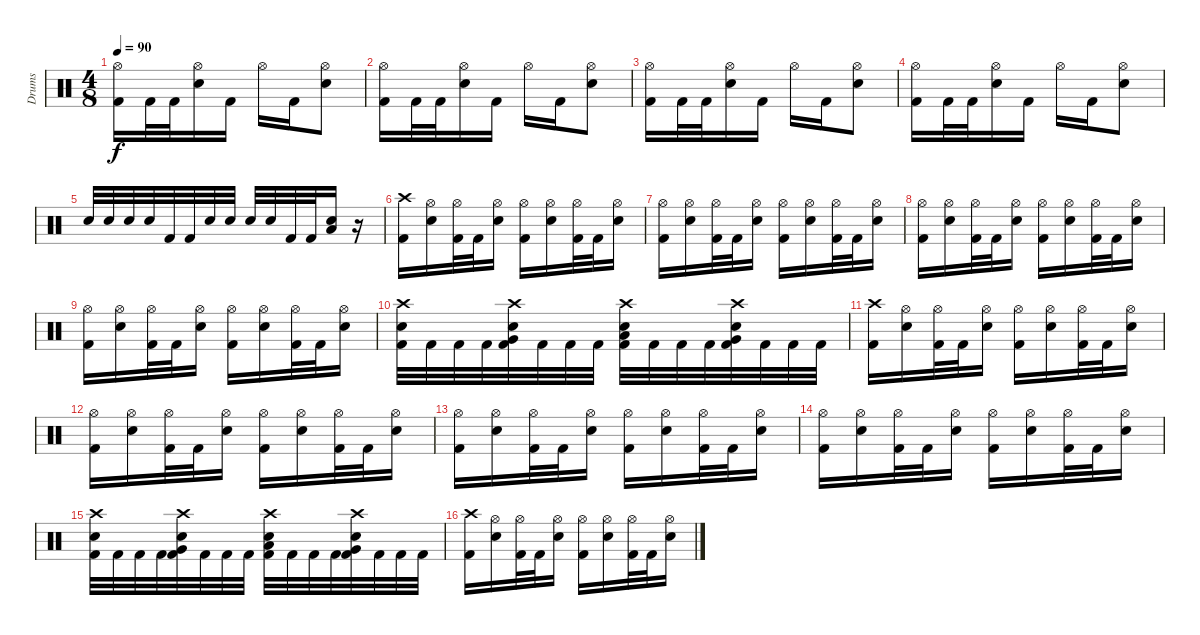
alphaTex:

\track ("Drums" "Drums") {instrument percussion}
\staff {score}
\articulation defaults
\ts (4 8)
\tempo 90
\clef neutral
\ks c
("Kick (hit) 2" "Hi-Hat (open)").16{dy f} "Kick (hit) 2".32 "Kick (hit) 2".32 ("Hi-Hat (open)" "Electric Snare (hit)").16 "Kick (hit) 2".16 "Hi-Hat (open)".16 "Kick (hit) 2".16 ("Electric Snare (hit)" "Hi-Hat (open)").8 |
("Kick (hit) 2" "Hi-Hat (open)").16 "Kick (hit) 2".32 "Kick (hit) 2".32 ("Hi-Hat (open)" "Electric Snare (hit)").16 "Kick (hit) 2".16 "Hi-Hat (open)".16 "Kick (hit) 2".16 ("Electric Snare (hit)" "Hi-Hat (open)").8 |
("Kick (hit) 2" "Hi-Hat (open)").16 "Kick (hit) 2".32 "Kick (hit) 2".32 ("Hi-Hat (open)" "Electric Snare (hit)").16 "Kick (hit) 2".16 "Hi-Hat (open)".16 "Kick (hit) 2".16 ("Electric Snare (hit)" "Hi-Hat (open)").8 |
("Kick (hit) 2" "Hi-Hat (open)").16 "Kick (hit) 2".32 "Kick (hit) 2".32 ("Hi-Hat (open)" "Electric Snare (hit)").16 "Kick (hit) 2".16 "Hi-Hat (open)".16 "Kick (hit) 2".16 ("Electric Snare (hit)" "Hi-Hat (open)").8 |
"Electric Snare (hit)".32 "Electric Snare (hit)".32 "Electric Snare (hit)".32 "Electric Snare (hit)".32 "Kick (hit) 2".32 "Kick (hit) 2".32 "Electric Snare (hit)".32 "Electric Snare (hit)".32 "Electric Snare (hit)".32 "Electric Snare (hit)".32 "Kick (hit) 2".32 "Kick (hit) 2".32 ("Electric Snare (hit)" "Low Floor Tom (hit)").16 r.16 |
("Kick (hit) 2" "Crash high (hit)").16 ("Electric Snare (hit)" "Hi-Hat (open)").16 ("Kick (hit) 2" "Hi-Hat (open)").32 "Kick (hit) 2".32 ("Electric Snare (hit)" "Hi-Hat (open)").16 ("Kick (hit) 2" "Hi-Hat (open)").16 ("Electric Snare (hit)" "Hi-Hat (open)").16 ("Kick (hit) 2" "Hi-Hat (open)").32 "Kick (hit) 2".32 ("Electric Snare (hit)" "Hi-Hat (open)").16 |
("Kick (hit) 2" "Hi-Hat (open)").16 ("Electric Snare (hit)" "Hi-Hat (open)").16 ("Kick (hit) 2" "Hi-Hat (open)").32 "Kick (hit) 2".32 ("Electric Snare (hit)" "Hi-Hat (open)").16 ("Kick (hit) 2" "Hi-Hat (open)").16 ("Electric Snare (hit)" "Hi-Hat (open)").16 ("Kick (hit) 2" "Hi-Hat (open)").32 "Kick (hit) 2".32 ("Electric Snare (hit)" "Hi-Hat (open)").16 |
("Kick (hit) 2" "Hi-Hat (open)").16 ("Electric Snare (hit)" "Hi-Hat (open)").16 ("Kick (hit) 2" "Hi-Hat (open)").32 "Kick (hit) 2".32 ("Electric Snare (hit)" "Hi-Hat (open)").16 ("Kick (hit) 2" "Hi-Hat (open)").16 ("Electric Snare (hit)" "Hi-Hat (open)").16 ("Kick (hit) 2" "Hi-Hat (open)").32 "Kick (hit) 2".32 ("Electric Snare (hit)" "Hi-Hat (open)").16 |
("Kick (hit) 2" "Hi-Hat (open)").16 ("Electric Snare (hit)" "Hi-Hat (open)").16 ("Kick (hit) 2" "Hi-Hat (open)").32 "Kick (hit) 2".32 ("Electric Snare (hit)" "Hi-Hat (open)").16 ("Kick (hit) 2" "Hi-Hat (open)").16 ("Electric Snare (hit)" "Hi-Hat (open)").16 ("Kick (hit) 2" "Hi-Hat (open)").32 "Kick (hit) 2".32 ("Electric Snare (hit)" "Hi-Hat (open)").16 |
("Kick (hit) 2" "Electric Snare (hit)" "Crash high (hit)").32 "Kick (hit) 2".32 "Kick (hit) 2".32 "Kick (hit) 2".32 ("Electric Snare (hit)" "Very Low Tom (hit)" "Kick (hit) 2" "Crash high (hit)").32 "Kick (hit) 2".32 "Kick (hit) 2".32 "Kick (hit) 2".32 ("Electric Snare (hit)" "Low Floor Tom (hit)" "Kick (hit) 2" "Crash high (hit)").32 "Kick (hit) 2".32 "Kick (hit) 2".32 "Kick (hit) 2".32 ("Electric Snare (hit)" "Very Low Tom (hit)" "Kick (hit) 2" "Crash high (hit)").32 "Kick (hit) 2".32 "Kick (hit) 2".32 "Kick (hit) 2".32 |
("Kick (hit) 2" "Crash high (hit)").16 ("Electric Snare (hit)" "Hi-Hat (open)").16 ("Kick (hit) 2" "Hi-Hat (open)").32 "Kick (hit) 2".32 ("Electric Snare (hit)" "Hi-Hat (open)").16 ("Kick (hit) 2" "Hi-Hat (open)").16 ("Electric Snare (hit)" "Hi-Hat (open)").16 ("Kick (hit) 2" "Hi-Hat (open)").32 "Kick (hit) 2".32 ("Electric Snare (hit)" "Hi-Hat (open)").16 |
("Kick (hit) 2" "Hi-Hat (open)").16 ("Electric Snare (hit)" "Hi-Hat (open)").16 ("Kick (hit) 2" "Hi-Hat (open)").32 "Kick (hit) 2".32 ("Electric Snare (hit)" "Hi-Hat (open)").16 ("Kick (hit) 2" "Hi-Hat (open)").16 ("Electric Snare (hit)" "Hi-Hat (open)").16 ("Kick (hit) 2" "Hi-Hat (open)").32 "Kick (hit) 2".32 ("Electric Snare (hit)" "Hi-Hat (open)").16 |
("Kick (hit) 2" "Hi-Hat (open)").16 ("Electric Snare (hit)" "Hi-Hat (open)").16 ("Kick (hit) 2" "Hi-Hat (open)").32 "Kick (hit) 2".32 ("Electric Snare (hit)" "Hi-Hat (open)").16 ("Kick (hit) 2" "Hi-Hat (open)").16 ("Electric Snare (hit)" "Hi-Hat (open)").16 ("Kick (hit) 2" "Hi-Hat (open)").32 "Kick (hit) 2".32 ("Electric Snare (hit)" "Hi-Hat (open)").16 |
("Kick (hit) 2" "Hi-Hat (open)").16 ("Electric Snare (hit)" "Hi-Hat (open)").16 ("Kick (hit) 2" "Hi-Hat (open)").32 "Kick (hit) 2".32 ("Electric Snare (hit)" "Hi-Hat (open)").16 ("Kick (hit) 2" "Hi-Hat (open)").16 ("Electric Snare (hit)" "Hi-Hat (open)").16 ("Kick (hit) 2" "Hi-Hat (open)").32 "Kick (hit) 2".32 ("Electric Snare (hit)" "Hi-Hat (open)").16 |
("Kick (hit) 2" "Electric Snare (hit)" "Crash high (hit)").32 "Kick (hit) 2".32 "Kick (hit) 2".32 "Kick (hit) 2".32 ("Electric Snare (hit)" "Very Low Tom (hit)" "Kick (hit) 2" "Crash high (hit)").32 "Kick (hit) 2".32 "Kick (hit) 2".32 "Kick (hit) 2".32 ("Electric Snare (hit)" "Low Floor Tom (hit)" "Kick (hit) 2" "Crash high (hit)").32 "Kick (hit) 2".32 "Kick (hit) 2".32 "Kick (hit) 2".32 ("Electric Snare (hit)" "Very Low Tom (hit)" "Kick (hit) 2" "Crash high (hit)").32 "Kick (hit) 2".32 "Kick (hit) 2".32 "Kick (hit) 2".32 |
("Kick (hit) 2" "Crash high (hit)").16 ("Electric Snare (hit)" "Hi-Hat (open)").16 ("Kick (hit) 2" "Hi-Hat (open)").32 "Kick (hit) 2".32 ("Electric Snare (hit)" "Hi-Hat (open)").16 ("Kick (hit) 2" "Hi-Hat (open)").16 ("Electric Snare (hit)" "Hi-Hat (open)").16 ("Kick (hit) 2" "Hi-Hat (open)").32 "Kick (hit) 2".32 ("Electric Snare (hit)" "Hi-Hat (open)").16
